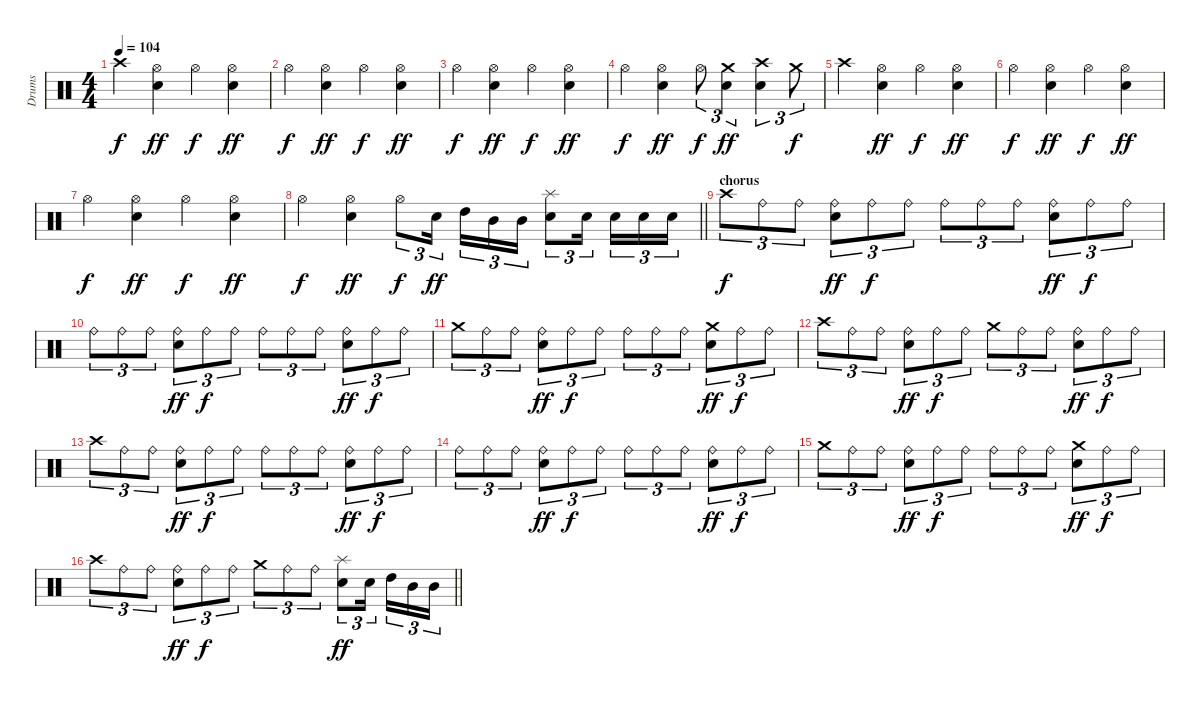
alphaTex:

\track ("Drums" "Drums") {instrument percussion}
\staff {score}
\articulation defaults
\ts (4 4)
\tempo 104
\clef neutral
\ks c "Crash high (hit)".4{dy f}
("Hi-Hat (open)" "Snare (hit) 2").4{dy ff} "Hi-Hat (open)".4{dy f} ("Hi-Hat (open)" "Snare (hit) 2").4{dy ff} |
"Hi-Hat (open)".4{dy f} ("Hi-Hat (open)" "Snare (hit) 2").4{dy ff} "Hi-Hat (open)".4{dy f} ("Hi-Hat (open)" "Snare (hit) 2").4{dy ff} |
"Hi-Hat (open)".4{dy f} ("Hi-Hat (open)" "Snare (hit) 2").4{dy ff} "Hi-Hat (open)".4{dy f} ("Hi-Hat (open)" "Snare (hit) 2").4{dy ff} |
"Hi-Hat (open)".4{dy f} ("Hi-Hat (open)" "Snare (hit) 2").4{dy ff} "Hi-Hat (open)".8{tu (3 2) dy f} ("Crash medium (hit)" "Snare (hit) 2").4{tu (3 2) dy ff} ("Crash high (hit)" "Snare (hit) 2").4{tu (3 2)} "Crash medium (hit)".8{tu (3 2) dy f} |
"Crash high (hit)".4 ("Hi-Hat (open)" "Snare (hit) 2").4{dy ff} "Hi-Hat (open)".4{dy f} ("Hi-Hat (open)" "Snare (hit) 2").4{dy ff} |
"Hi-Hat (open)".4{dy f} ("Hi-Hat (open)" "Snare (hit) 2").4{dy ff} "Hi-Hat (open)".4{dy f} ("Hi-Hat (open)" "Snare (hit) 2").4{dy ff} |
"Hi-Hat (open)".4{dy f} ("Hi-Hat (open)" "Snare (hit) 2").4{dy ff} "Hi-Hat (open)".4{dy f} ("Hi-Hat (open)" "Snare (hit) 2").4{dy ff} |
\barLineRight lightlight "Hi-Hat (open)".4{dy f}
("Hi-Hat (open)" "Snare (hit) 2").4{dy ff} "Hi-Hat (open)".8{tu (3 2) dy f} "Snare (hit) 2".16{tu (3 2) dy ff beam splitsecondary} "High Tom (hit)".16{tu (3 2)} "Mid Tom (hit)".16{tu (3 2)} "Mid Tom (hit)".16{tu (3 2)} ("Splash (hit)" "Snare (hit) 2").8{tu (3 2)} "Snare (hit) 2".16{tu (3 2) beam splitsecondary} "Snare (hit) 2".16{tu (3 2)} "Snare (hit) 2".16{tu (3 2)} "Snare (hit) 2".16{tu (3 2)} |
\section ("" "chorus")
"Crash high (hit)".8{tu (3 2) dy f} "Ride (bell)".8{tu (3 2)} "Ride (bell)".8{tu (3 2)} ("Ride (bell)" "Snare (hit) 2").8{tu (3 2) dy ff} "Ride (bell)".8{tu (3 2) dy f} "Ride (bell)".8{tu (3 2)} "Ride (bell)".8{tu (3 2)} "Ride (bell)".8{tu (3 2)} "Ride (bell)".8{tu (3 2)} ("Ride (bell)" "Snare (hit) 2").8{tu (3 2) dy ff} "Ride (bell)".8{tu (3 2) dy f} "Ride (bell)".8{tu (3 2)} |
"Ride (bell)".8{tu (3 2)} "Ride (bell)".8{tu (3 2)} "Ride (bell)".8{tu (3 2)} ("Ride (bell)" "Snare (hit) 2").8{tu (3 2) dy ff} "Ride (bell)".8{tu (3 2) dy f} "Ride (bell)".8{tu (3 2)} "Ride (bell)".8{tu (3 2)} "Ride (bell)".8{tu (3 2)} "Ride (bell)".8{tu (3 2)} ("Ride (bell)" "Snare (hit) 2").8{tu (3 2) dy ff} "Ride (bell)".8{tu (3 2) dy f} "Ride (bell)".8{tu (3 2)} |
"Crash medium (hit)".8{tu (3 2)} "Ride (bell)".8{tu (3 2)} "Ride (bell)".8{tu (3 2)} ("Ride (bell)" "Snare (hit) 2").8{tu (3 2) dy ff} "Ride (bell)".8{tu (3 2) dy f} "Ride (bell)".8{tu (3 2)} "Ride (bell)".8{tu (3 2)} "Ride (bell)".8{tu (3 2)} "Ride (bell)".8{tu (3 2)} ("Crash medium (hit)" "Snare (hit) 2").8{tu (3 2) dy ff} "Ride (bell)".8{tu (3 2) dy f} "Ride (bell)".8{tu (3 2)} |
"Crash high (hit)".8{tu (3 2)} "Ride (bell)".8{tu (3 2)} "Ride (bell)".8{tu (3 2)} ("Ride (bell)" "Snare (hit) 2").8{tu (3 2) dy ff} "Ride (bell)".8{tu (3 2) dy f} "Ride (bell)".8{tu (3 2)} "Crash medium (hit)".8{tu (3 2)} "Ride (bell)".8{tu (3 2)} "Ride (bell)".8{tu (3 2)} ("Ride (bell)" "Snare (hit) 2").8{tu (3 2) dy ff} "Ride (bell)".8{tu (3 2) dy f} "Ride (bell)".8{tu (3 2)} |
"Crash high (hit)".8{tu (3 2)} "Ride (bell)".8{tu (3 2)} "Ride (bell)".8{tu (3 2)} ("Ride (bell)" "Snare (hit) 2").8{tu (3 2) dy ff} "Ride (bell)".8{tu (3 2) dy f} "Ride (bell)".8{tu (3 2)} "Ride (bell)".8{tu (3 2)} "Ride (bell)".8{tu (3 2)} "Ride (bell)".8{tu (3 2)} ("Ride (bell)" "Snare (hit) 2").8{tu (3 2) dy ff} "Ride (bell)".8{tu (3 2) dy f} "Ride (bell)".8{tu (3 2)} |
"Ride (bell)".8{tu (3 2)} "Ride (bell)".8{tu (3 2)} "Ride (bell)".8{tu (3 2)} ("Ride (bell)" "Snare (hit) 2").8{tu (3 2) dy ff} "Ride (bell)".8{tu (3 2) dy f} "Ride (bell)".8{tu (3 2)} "Ride (bell)".8{tu (3 2)} "Ride (bell)".8{tu (3 2)} "Ride (bell)".8{tu (3 2)} ("Ride (bell)" "Snare (hit) 2").8{tu (3 2) dy ff} "Ride (bell)".8{tu (3 2) dy f} "Ride (bell)".8{tu (3 2)} |
"Crash medium (hit)".8{tu (3 2)} "Ride (bell)".8{tu (3 2)} "Ride (bell)".8{tu (3 2)} ("Ride (bell)" "Snare (hit) 2").8{tu (3 2) dy ff} "Ride (bell)".8{tu (3 2) dy f} "Ride (bell)".8{tu (3 2)} "Ride (bell)".8{tu (3 2)} "Ride (bell)".8{tu (3 2)} "Ride (bell)".8{tu (3 2)} ("Crash medium (hit)" "Snare (hit) 2").8{tu (3 2) dy ff} "Ride (bell)".8{tu (3 2) dy f} "Ride (bell)".8{tu (3 2)} |
\barLineRight lightlight "Crash high (hit)".8{tu (3 2)} "Ride (bell)".8{tu (3 2)} "Ride (bell)".8{tu (3 2)}
("Ride (bell)" "Snare (hit) 2").8{tu (3 2) dy ff} "Ride (bell)".8{tu (3 2) dy f} "Ride (bell)".8{tu (3 2)} "Crash medium (hit)".8{tu (3 2)} "Ride (bell)".8{tu (3 2)} "Ride (bell)".8{tu (3 2)} ("Splash (hit)" "Snare (hit) 2").8{tu (3 2) dy ff} "Snare (hit) 2".16{tu (3 2) beam splitsecondary} "High Tom (hit)".16{tu (3 2)} "Mid Tom (hit)".16{tu (3 2)} "Mid Tom (hit)".16{tu (3 2)}
